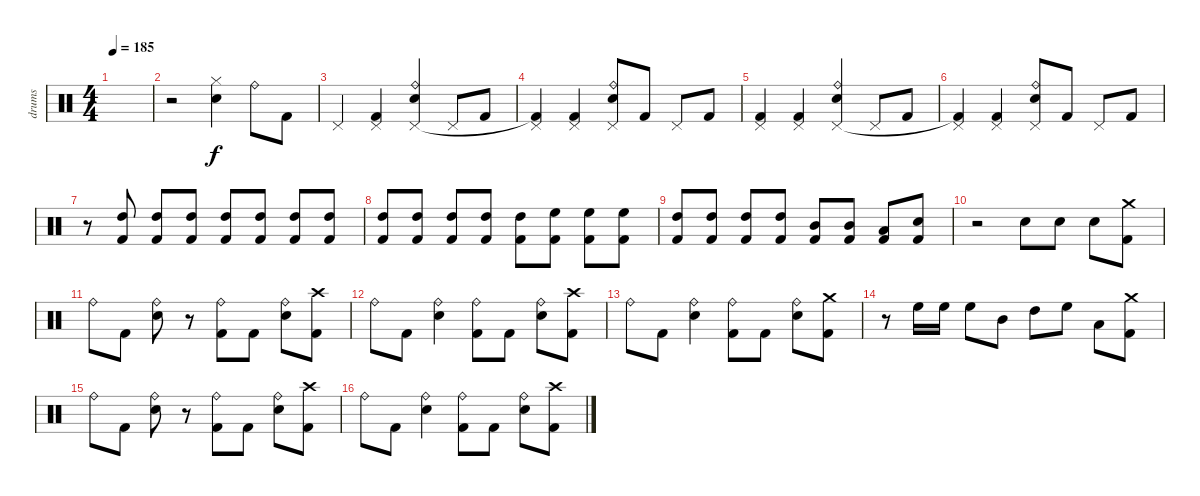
\track ("drums" "drums") {instrument percussion}
\staff {score}
\articulation defaults
\ts (4 4)
\tempo 185
\clef neutral
\ks c
|
r.2 ("Hi-Hat (closed)" "Snare (hit) 2").4 "Ride (bell)".8 "Kick (hit) 2".8 |
"Pedal Hi-Hat (hit)".4 ("Pedal Hi-Hat (hit)" "Kick (hit) 2").4 ("Ride (bell)" "Pedal Hi-Hat (hit)" "Snare (hit) 2").4 "Pedal Hi-Hat (hit)".8 "Kick (hit) 2".8 |
("Pedal Hi-Hat (hit)" "Kick (hit) 2"{t}).4 ("Pedal Hi-Hat (hit)" "Kick (hit) 2").4 ("Ride (bell)" "Pedal Hi-Hat (hit)" "Snare (hit) 2").8 "Kick (hit) 2".8 "Pedal Hi-Hat (hit)".8 "Kick (hit) 2".8 |
("Pedal Hi-Hat (hit)" "Kick (hit) 2").4 ("Pedal Hi-Hat (hit)" "Kick (hit) 2").4 ("Ride (bell)" "Pedal Hi-Hat (hit)" "Snare (hit) 2").4 "Pedal Hi-Hat (hit)".8 "Kick (hit) 2".8 |
("Pedal Hi-Hat (hit)" "Kick (hit) 2"{t}).4 ("Pedal Hi-Hat (hit)" "Kick (hit) 2").4 ("Ride (bell)" "Pedal Hi-Hat (hit)" "Snare (hit) 2").8 "Kick (hit) 2".8 "Pedal Hi-Hat (hit)".8 "Kick (hit) 2".8 |
r.8 ("High Tom (hit)" "Kick (hit) 2").8 ("High Tom (hit)" "Kick (hit) 2").8 ("High Tom (hit)" "Kick (hit) 2").8 ("High Tom (hit)" "Kick (hit) 2").8 ("High Tom (hit)" "Kick (hit) 2").8 ("High Tom (hit)" "Kick (hit) 2").8 ("High Tom (hit)" "Kick (hit) 2").8 |
("High Tom (hit)" "Kick (hit) 2").8 ("High Tom (hit)" "Kick (hit) 2").8 ("High Tom (hit)" "Kick (hit) 2").8 ("High Tom (hit)" "Kick (hit) 2").8 ("High Tom (hit)" "Kick (hit) 2").8 ("High Floor Tom (hit)" "Kick (hit) 2").8 ("High Floor Tom (hit)" "Kick (hit) 2").8 ("High Floor Tom (hit)" "Kick (hit) 2").8 |
("High Tom (hit)" "Kick (hit) 2").8 ("High Tom (hit)" "Kick (hit) 2").8 ("High Tom (hit)" "Kick (hit) 2").8 ("High Tom (hit)" "Kick (hit) 2").8 ("Mid Tom (hit)" "Kick (hit) 2").8 ("Mid Tom (hit)" "Kick (hit) 2").8 ("Low Tom (hit)" "Kick (hit) 2").8 ("Electric Snare (hit)" "Kick (hit) 2").8 |
r.2 "Electric Snare (hit)".8 "Electric Snare (hit)".8 "Electric Snare (hit)".8 ("Crash medium (hit)" "Kick (hit) 2").8 |
"Ride (bell)".8 "Kick (hit) 2".8 ("Ride (bell)" "Electric Snare (hit)").8 r.8 ("Ride (bell)" "Kick (hit) 2").8 "Kick (hit) 2".8 ("Ride (bell)" "Electric Snare (hit)").8 ("Crash high (hit)" "Kick (hit) 2").8 |
"Ride (bell)".8 "Kick (hit) 2".8 ("Ride (bell)" "Electric Snare (hit)").4 ("Ride (bell)" "Kick (hit) 2").8 "Kick (hit) 2".8 ("Ride (bell)" "Electric Snare (hit)").8 ("Crash high (hit)" "Kick (hit) 2").8 |
"Ride (bell)".8 "Kick (hit) 2".8 ("Ride (bell)" "Electric Snare (hit)").4 ("Ride (bell)" "Kick (hit) 2").8 "Kick (hit) 2".8 ("Ride (bell)" "Electric Snare (hit)").8 ("Crash medium (hit)" "Kick (hit) 2").8 |
r.8 "High Floor Tom (hit)".16 "High Floor Tom (hit)".16 "High Floor Tom (hit)".8 "Mid Tom (hit)".8 "High Tom (hit)".8 "High Floor Tom (hit)".8 "Low Tom (hit)".8 ("Crash medium (hit)" "Kick (hit) 2").8 |
"Ride (bell)".8 "Kick (hit) 2".8 ("Ride (bell)" "Electric Snare (hit)").8 r.8 ("Ride (bell)" "Kick (hit) 2").8 "Kick (hit) 2".8 ("Ride (bell)" "Electric Snare (hit)").8 ("Crash high (hit)" "Kick (hit) 2").8 |
"Ride (bell)".8 "Kick (hit) 2".8 ("Ride (bell)" "Electric Snare (hit)").4 ("Ride (bell)" "Kick (hit) 2").8 "Kick (hit) 2".8 ("Ride (bell)" "Electric Snare (hit)").8 ("Crash high (hit)" "Kick (hit) 2").8
